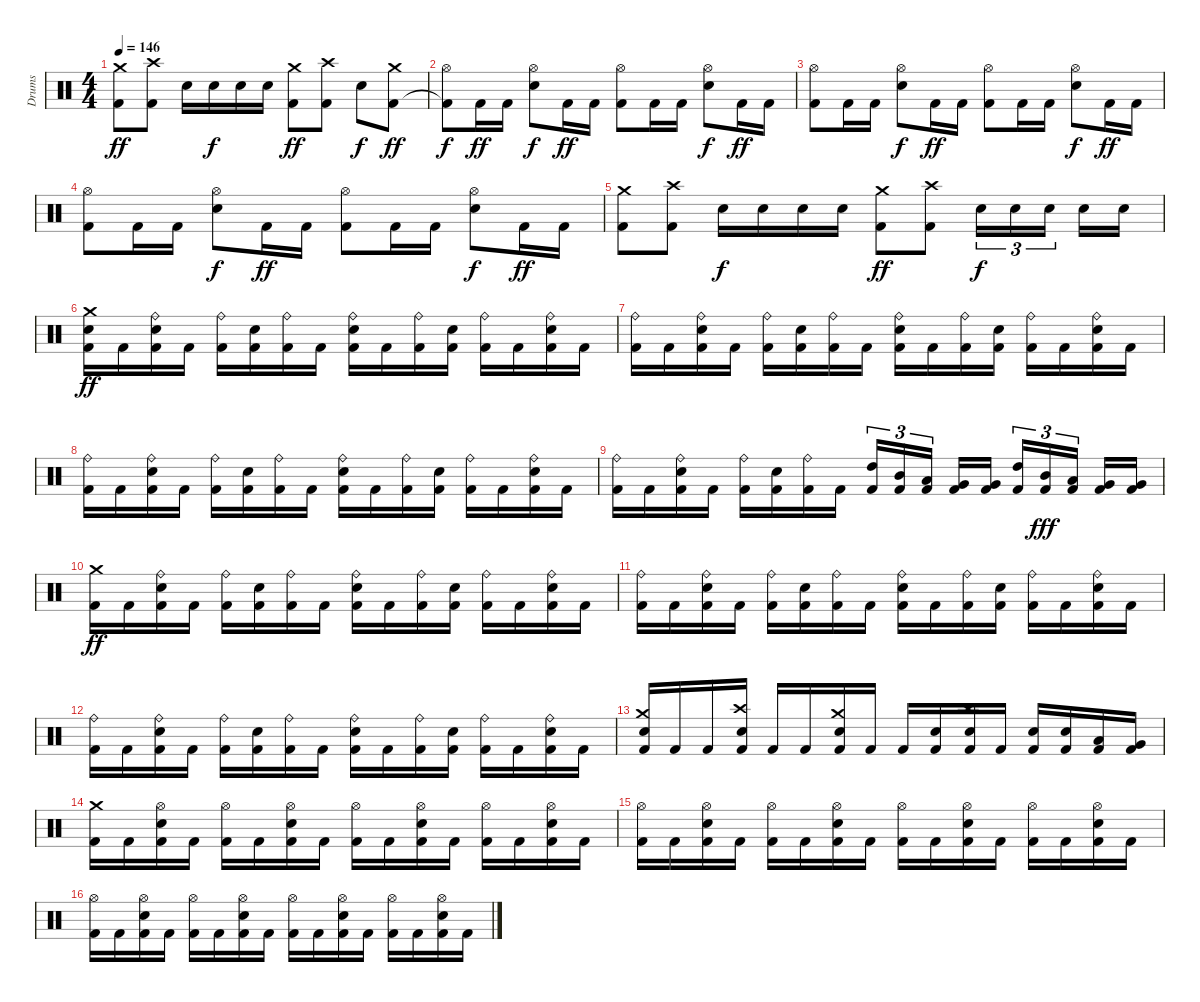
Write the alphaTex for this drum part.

\track ("Drums" "Drums") {instrument percussion}
\staff {score}
\articulation defaults
\ts (4 4)
\tempo 146
\clef neutral
\ks c
("Kick (hit) 2" "Crash medium (hit)").8{dy ff} ("Kick (hit) 2" "Crash high (hit)").8 "Electric Snare (hit)".16 "Electric Snare (hit)".16{dy f} "Electric Snare (hit)".16 "Electric Snare (hit)".16 ("Kick (hit) 2" "Crash medium (hit)").8{dy ff} ("Kick (hit) 2" "Crash high (hit)").8 "Electric Snare (hit)".8{dy f} ("Kick (hit) 2" "Crash medium (hit)").8{dy ff} |
("Kick (hit) 2"{t} "Hi-Hat (open)").8{dy f} "Kick (hit) 2".16{dy ff} "Kick (hit) 2".16 ("Electric Snare (hit)" "Hi-Hat (open)").8{dy f} "Kick (hit) 2".16{dy ff} "Kick (hit) 2".16 ("Kick (hit) 2" "Hi-Hat (open)").8 "Kick (hit) 2".16 "Kick (hit) 2".16 ("Electric Snare (hit)" "Hi-Hat (open)").8{dy f} "Kick (hit) 2".16{dy ff} "Kick (hit) 2".16 |
("Kick (hit) 2" "Hi-Hat (open)").8 "Kick (hit) 2".16 "Kick (hit) 2".16 ("Electric Snare (hit)" "Hi-Hat (open)").8{dy f} "Kick (hit) 2".16{dy ff} "Kick (hit) 2".16 ("Kick (hit) 2" "Hi-Hat (open)").8 "Kick (hit) 2".16 "Kick (hit) 2".16 ("Electric Snare (hit)" "Hi-Hat (open)").8{dy f} "Kick (hit) 2".16{dy ff} "Kick (hit) 2".16 |
("Kick (hit) 2" "Hi-Hat (open)").8 "Kick (hit) 2".16 "Kick (hit) 2".16 ("Electric Snare (hit)" "Hi-Hat (open)").8{dy f} "Kick (hit) 2".16{dy ff} "Kick (hit) 2".16 ("Kick (hit) 2" "Hi-Hat (open)").8 "Kick (hit) 2".16 "Kick (hit) 2".16 ("Electric Snare (hit)" "Hi-Hat (open)").8{dy f} "Kick (hit) 2".16{dy ff} "Kick (hit) 2".16 |
("Kick (hit) 2" "Crash medium (hit)").8 ("Kick (hit) 2" "Crash high (hit)").8 "Electric Snare (hit)".16{dy f} "Electric Snare (hit)".16 "Electric Snare (hit)".16 "Electric Snare (hit)".16 ("Kick (hit) 2" "Crash medium (hit)").8{dy ff} ("Kick (hit) 2" "Crash high (hit)").8 "Electric Snare (hit)".16{tu (3 2) dy f} "Electric Snare (hit)".16{tu (3 2)} "Electric Snare (hit)".16{tu (3 2)} "Electric Snare (hit)".16 "Electric Snare (hit)".16 |
("Kick (hit) 2" "Electric Snare (hit)" "Crash medium (hit)").16{dy ff} "Kick (hit) 2".16 ("Kick (hit) 2" "Electric Snare (hit)" "Ride (bell)").16 "Kick (hit) 2".16 ("Kick (hit) 2" "Ride (bell)").16 ("Kick (hit) 2" "Electric Snare (hit)").16 ("Kick (hit) 2" "Ride (bell)").16 "Kick (hit) 2".16 ("Kick (hit) 2" "Electric Snare (hit)" "Ride (bell)").16 "Kick (hit) 2".16 ("Kick (hit) 2" "Ride (bell)").16 ("Kick (hit) 2" "Electric Snare (hit)").16 ("Kick (hit) 2" "Ride (bell)").16 "Kick (hit) 2".16 ("Kick (hit) 2" "Electric Snare (hit)" "Ride (bell)").16 "Kick (hit) 2".16 |
("Kick (hit) 2" "Ride (bell)").16 "Kick (hit) 2".16 ("Kick (hit) 2" "Electric Snare (hit)" "Ride (bell)").16 "Kick (hit) 2".16 ("Kick (hit) 2" "Ride (bell)").16 ("Kick (hit) 2" "Electric Snare (hit)").16 ("Kick (hit) 2" "Ride (bell)").16 "Kick (hit) 2".16 ("Kick (hit) 2" "Electric Snare (hit)" "Ride (bell)").16 "Kick (hit) 2".16 ("Kick (hit) 2" "Ride (bell)").16 ("Kick (hit) 2" "Electric Snare (hit)").16 ("Kick (hit) 2" "Ride (bell)").16 "Kick (hit) 2".16 ("Kick (hit) 2" "Electric Snare (hit)" "Ride (bell)").16 "Kick (hit) 2".16 |
("Kick (hit) 2" "Ride (bell)").16 "Kick (hit) 2".16 ("Kick (hit) 2" "Electric Snare (hit)" "Ride (bell)").16 "Kick (hit) 2".16 ("Kick (hit) 2" "Ride (bell)").16 ("Kick (hit) 2" "Electric Snare (hit)").16 ("Kick (hit) 2" "Ride (bell)").16 "Kick (hit) 2".16 ("Kick (hit) 2" "Electric Snare (hit)" "Ride (bell)").16 "Kick (hit) 2".16 ("Kick (hit) 2" "Ride (bell)").16 ("Kick (hit) 2" "Electric Snare (hit)").16 ("Kick (hit) 2" "Ride (bell)").16 "Kick (hit) 2".16 ("Kick (hit) 2" "Electric Snare (hit)" "Ride (bell)").16 "Kick (hit) 2".16 |
("Kick (hit) 2" "Ride (bell)").16 "Kick (hit) 2".16 ("Kick (hit) 2" "Electric Snare (hit)" "Ride (bell)").16 "Kick (hit) 2".16 ("Kick (hit) 2" "Ride (bell)").16 ("Kick (hit) 2" "Electric Snare (hit)").16 ("Kick (hit) 2" "Ride (bell)").16 "Kick (hit) 2".16 ("Kick (hit) 2" "High Tom (hit)").16{tu (3 2)} ("Kick (hit) 2" "Mid Tom (hit)").16{tu (3 2)} ("Kick (hit) 2" "Low Tom (hit)").16{tu (3 2)} ("Kick (hit) 2" "Very Low Tom (hit)").16 ("Kick (hit) 2" "Very Low Tom (hit)").16 ("Kick (hit) 2" "High Tom (hit)").16{tu (3 2)} ("Kick (hit) 2" "Mid Tom (hit)").16{tu (3 2) dy fff} ("Kick (hit) 2" "Low Tom (hit)").16{tu (3 2)} ("Kick (hit) 2" "Very Low Tom (hit)").16 ("Kick (hit) 2" "Very Low Tom (hit)").16 |
("Kick (hit) 2" "Crash medium (hit)").16{dy ff} "Kick (hit) 2".16 ("Kick (hit) 2" "Electric Snare (hit)" "Ride (bell)").16 "Kick (hit) 2".16 ("Kick (hit) 2" "Ride (bell)").16 ("Kick (hit) 2" "Electric Snare (hit)").16 ("Kick (hit) 2" "Ride (bell)").16 "Kick (hit) 2".16 ("Kick (hit) 2" "Electric Snare (hit)" "Ride (bell)").16 "Kick (hit) 2".16 ("Kick (hit) 2" "Ride (bell)").16 ("Kick (hit) 2" "Electric Snare (hit)").16 ("Kick (hit) 2" "Ride (bell)").16 "Kick (hit) 2".16 ("Kick (hit) 2" "Electric Snare (hit)" "Ride (bell)").16 "Kick (hit) 2".16 |
("Kick (hit) 2" "Ride (bell)").16 "Kick (hit) 2".16 ("Kick (hit) 2" "Electric Snare (hit)" "Ride (bell)").16 "Kick (hit) 2".16 ("Kick (hit) 2" "Ride (bell)").16 ("Kick (hit) 2" "Electric Snare (hit)").16 ("Kick (hit) 2" "Ride (bell)").16 "Kick (hit) 2".16 ("Kick (hit) 2" "Electric Snare (hit)" "Ride (bell)").16 "Kick (hit) 2".16 ("Kick (hit) 2" "Ride (bell)").16 ("Kick (hit) 2" "Electric Snare (hit)").16 ("Kick (hit) 2" "Ride (bell)").16 "Kick (hit) 2".16 ("Kick (hit) 2" "Electric Snare (hit)" "Ride (bell)").16 "Kick (hit) 2".16 |
("Kick (hit) 2" "Ride (bell)").16 "Kick (hit) 2".16 ("Kick (hit) 2" "Electric Snare (hit)" "Ride (bell)").16 "Kick (hit) 2".16 ("Kick (hit) 2" "Ride (bell)").16 ("Kick (hit) 2" "Electric Snare (hit)").16 ("Kick (hit) 2" "Ride (bell)").16 "Kick (hit) 2".16 ("Kick (hit) 2" "Electric Snare (hit)" "Ride (bell)").16 "Kick (hit) 2".16 ("Kick (hit) 2" "Ride (bell)").16 ("Kick (hit) 2" "Electric Snare (hit)").16 ("Kick (hit) 2" "Ride (bell)").16 "Kick (hit) 2".16 ("Kick (hit) 2" "Electric Snare (hit)" "Ride (bell)").16 "Kick (hit) 2".16 |
("Kick (hit) 2" "Electric Snare (hit)" "Crash medium (hit)").16 "Kick (hit) 2".16 "Kick (hit) 2".16 ("Kick (hit) 2" "Electric Snare (hit)" "Crash high (hit)").16 "Kick (hit) 2".16 "Kick (hit) 2".16 ("Kick (hit) 2" "Electric Snare (hit)" "Crash medium (hit)").16 "Kick (hit) 2".16 "Kick (hit) 2".16 ("Kick (hit) 2" "Electric Snare (hit)").16 ("Kick (hit) 2" "Electric Snare (hit)" "Crash high (hit)").16 "Kick (hit) 2".16 ("Kick (hit) 2" "Electric Snare (hit)").16 ("Kick (hit) 2" "Electric Snare (hit)").16 ("Kick (hit) 2" "Low Tom (hit)").16 ("Kick (hit) 2" "Very Low Tom (hit)").16 |
("Kick (hit) 2" "Crash medium (hit)").16 "Kick (hit) 2".16 ("Kick (hit) 2" "Electric Snare (hit)" "Hi-Hat (open)").16 "Kick (hit) 2".16 ("Kick (hit) 2" "Hi-Hat (open)").16 "Kick (hit) 2".16 ("Kick (hit) 2" "Electric Snare (hit)" "Hi-Hat (open)").16 "Kick (hit) 2".16 ("Kick (hit) 2" "Hi-Hat (open)").16 "Kick (hit) 2".16 ("Kick (hit) 2" "Electric Snare (hit)" "Hi-Hat (open)").16 "Kick (hit) 2".16 ("Kick (hit) 2" "Hi-Hat (open)").16 "Kick (hit) 2".16 ("Kick (hit) 2" "Electric Snare (hit)" "Hi-Hat (open)").16 "Kick (hit) 2".16 |
("Kick (hit) 2" "Hi-Hat (open)").16 "Kick (hit) 2".16 ("Kick (hit) 2" "Electric Snare (hit)" "Hi-Hat (open)").16 "Kick (hit) 2".16 ("Kick (hit) 2" "Hi-Hat (open)").16 "Kick (hit) 2".16 ("Kick (hit) 2" "Electric Snare (hit)" "Hi-Hat (open)").16 "Kick (hit) 2".16 ("Kick (hit) 2" "Hi-Hat (open)").16 "Kick (hit) 2".16 ("Kick (hit) 2" "Electric Snare (hit)" "Hi-Hat (open)").16 "Kick (hit) 2".16 ("Kick (hit) 2" "Hi-Hat (open)").16 "Kick (hit) 2".16 ("Kick (hit) 2" "Electric Snare (hit)" "Hi-Hat (open)").16 "Kick (hit) 2".16 |
("Kick (hit) 2" "Hi-Hat (open)").16 "Kick (hit) 2".16 ("Kick (hit) 2" "Electric Snare (hit)" "Hi-Hat (open)").16 "Kick (hit) 2".16 ("Kick (hit) 2" "Hi-Hat (open)").16 "Kick (hit) 2".16 ("Kick (hit) 2" "Electric Snare (hit)" "Hi-Hat (open)").16 "Kick (hit) 2".16 ("Kick (hit) 2" "Hi-Hat (open)").16 "Kick (hit) 2".16 ("Kick (hit) 2" "Electric Snare (hit)" "Hi-Hat (open)").16 "Kick (hit) 2".16 ("Kick (hit) 2" "Hi-Hat (open)").16 "Kick (hit) 2".16 ("Kick (hit) 2" "Electric Snare (hit)" "Hi-Hat (open)").16 "Kick (hit) 2".16
